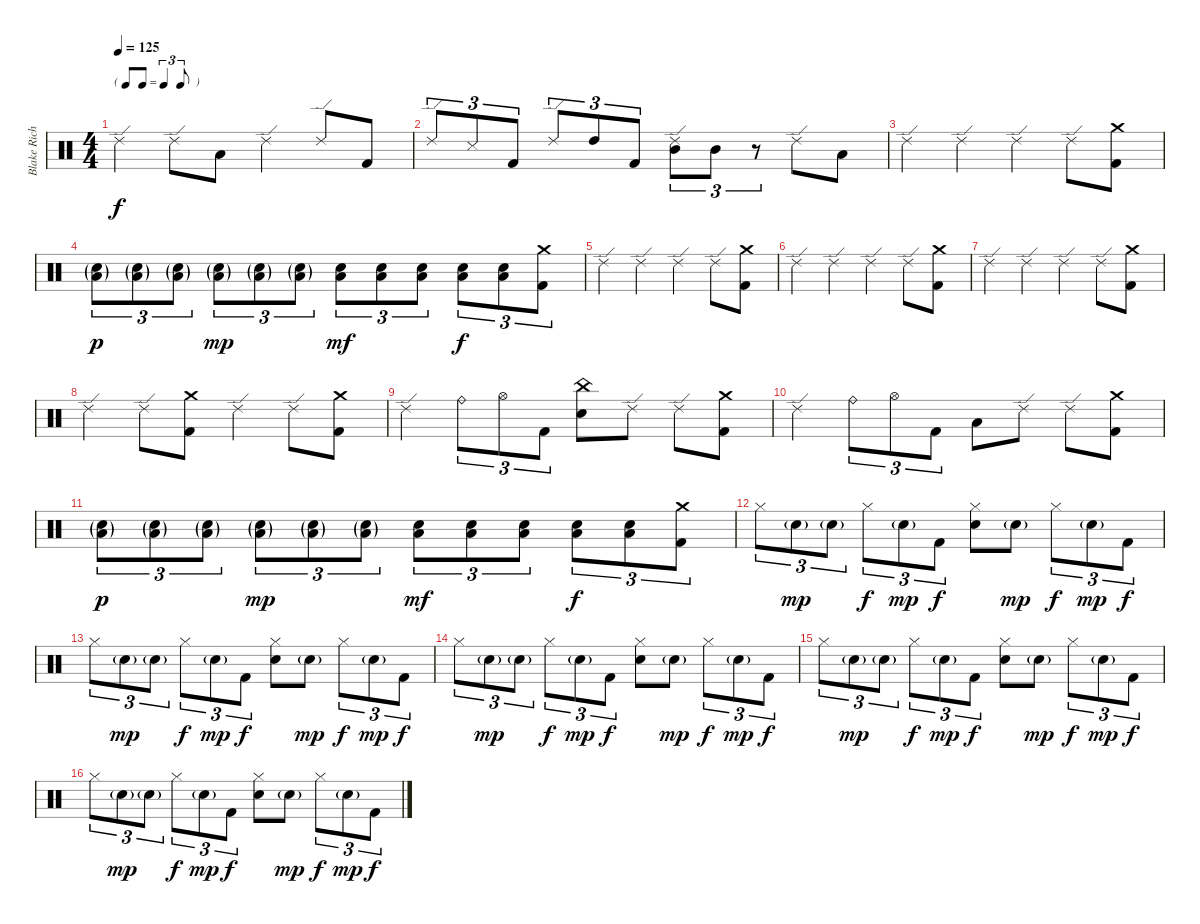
\track ("Blake Richardson - Drums" "Blake Rich") {instrument percussion}
\staff {score}
\articulation defaults
\ts (4 4)
\tf triplet8th
\tempo 125
\clef neutral
\ks c "Ride (edge) 2".4{dy f} "Ride (edge) 2".8 "Low Floor Tom (hit)".8 "Ride (edge) 2".4 "Ride (edge) 2".8 "Kick (hit) 2".8
|
"Ride (edge) 2".8{tu (3 2)} "Snare (side stick) 3".8{tu (3 2)} "Kick (hit) 2".8{tu (3 2)} "Ride (edge) 2".8{tu (3 2)} "High Tom (hit)".8{tu (3 2)} "Kick (hit) 2".8{tu (3 2)} ("Ride (edge) 2" "Mid Tom (hit)").8{tu (3 2)} "Mid Tom (hit)".8{tu (3 2)} r.8{tu (3 2)} "Ride (edge) 2".8 "Low Tom (hit)".8 |
"Ride (edge) 2".4 "Ride (edge) 2".4 "Ride (edge) 2".4 "Ride (edge) 2".8 ("Crash medium (hit)" "Kick (hit) 2").8 |
("Electric Snare (hit)"{g} "Low Tom (hit)"{g}).8{tu (3 2) dy p} ("Electric Snare (hit)"{g} "Low Tom (hit)"{g}).8{tu (3 2)} ("Electric Snare (hit)"{g} "Low Tom (hit)"{g}).8{tu (3 2)} ("Electric Snare (hit)"{g} "Low Tom (hit)"{g}).8{tu (3 2) dy mp} ("Electric Snare (hit)"{g} "Low Tom (hit)"{g}).8{tu (3 2)} ("Electric Snare (hit)"{g} "Low Tom (hit)"{g}).8{tu (3 2)} ("Electric Snare (hit)" "Low Tom (hit)").8{tu (3 2) dy mf} ("Electric Snare (hit)" "Low Tom (hit)").8{tu (3 2)} ("Electric Snare (hit)" "Low Tom (hit)").8{tu (3 2)} ("Electric Snare (hit)" "Low Tom (hit)").8{tu (3 2) dy f} ("Electric Snare (hit)" "Low Tom (hit)").8{tu (3 2)} ("Crash medium (hit)" "Kick (hit) 2").8{tu (3 2)} |
"Ride (edge) 2".4 "Ride (edge) 2".4 "Ride (edge) 2".4 "Ride (edge) 2".8 ("Crash medium (hit)" "Kick (hit) 2").8 |
"Ride (edge) 2".4 "Ride (edge) 2".4 "Ride (edge) 2".4 "Ride (edge) 2".8 ("Crash medium (hit)" "Kick (hit) 2").8 |
"Ride (edge) 2".4 "Ride (edge) 2".4 "Ride (edge) 2".4 "Ride (edge) 2".8 ("Crash medium (hit)" "Kick (hit) 2").8 |
"Ride (edge) 2".4 "Ride (edge) 2".8 ("Crash medium (hit)" "Kick (hit) 2").8 "Ride (edge) 2".4 "Ride (edge) 2".8 ("Crash medium (hit)" "Kick (hit) 2").8 |
"Ride (edge) 2".4 "Ride (bell)".8{tu (3 2)} "Hi-Hat (open)".8{tu (3 2)} "Kick (hit) 2".8{tu (3 2)} ("China (hit)" "Electric Snare (hit)").8 "Ride (edge) 2".8 "Ride (edge) 2".8 ("Crash medium (hit)" "Kick (hit) 2").8 |
"Ride (edge) 2".4 "Ride (bell)".8{tu (3 2)} "Hi-Hat (open)".8{tu (3 2)} "Kick (hit) 2".8{tu (3 2)} "Low Floor Tom (hit)".8 "Ride (edge) 2".8 "Ride (edge) 2".8 ("Crash medium (hit)" "Kick (hit) 2").8 |
("Electric Snare (hit)"{g} "Low Tom (hit)"{g}).8{tu (3 2) dy p} ("Electric Snare (hit)"{g} "Low Tom (hit)"{g}).8{tu (3 2)} ("Electric Snare (hit)"{g} "Low Tom (hit)"{g}).8{tu (3 2)} ("Electric Snare (hit)"{g} "Low Tom (hit)"{g}).8{tu (3 2) dy mp} ("Electric Snare (hit)"{g} "Low Tom (hit)"{g}).8{tu (3 2)} ("Electric Snare (hit)"{g} "Low Tom (hit)"{g}).8{tu (3 2)} ("Electric Snare (hit)" "Low Tom (hit)").8{tu (3 2) dy mf} ("Electric Snare (hit)" "Low Tom (hit)").8{tu (3 2)} ("Electric Snare (hit)" "Low Tom (hit)").8{tu (3 2)} ("Electric Snare (hit)" "Low Tom (hit)").8{tu (3 2) dy f} ("Electric Snare (hit)" "Low Tom (hit)").8{tu (3 2)} ("Crash medium (hit)" "Kick (hit) 2").8{tu (3 2)} |
"Hi-Hat (closed)".8{tu (3 2)} "Electric Snare (hit)"{g}.8{tu (3 2) dy mp} "Electric Snare (hit)"{g}.8{tu (3 2)} "Hi-Hat (closed)".8{tu (3 2) dy f} "Electric Snare (hit)"{g}.8{tu (3 2) dy mp} "Kick (hit) 2".8{tu (3 2) dy f} ("Hi-Hat (closed)" "Electric Snare (hit)").8 "Electric Snare (hit)"{g}.8{dy mp} "Hi-Hat (closed)".8{tu (3 2) dy f} "Electric Snare (hit)"{g}.8{tu (3 2) dy mp} "Kick (hit) 2".8{tu (3 2) dy f} |
"Hi-Hat (closed)".8{tu (3 2)} "Electric Snare (hit)"{g}.8{tu (3 2) dy mp} "Electric Snare (hit)"{g}.8{tu (3 2)} "Hi-Hat (closed)".8{tu (3 2) dy f} "Electric Snare (hit)"{g}.8{tu (3 2) dy mp} "Kick (hit) 2".8{tu (3 2) dy f} ("Hi-Hat (closed)" "Electric Snare (hit)").8 "Electric Snare (hit)"{g}.8{dy mp} "Hi-Hat (closed)".8{tu (3 2) dy f} "Electric Snare (hit)"{g}.8{tu (3 2) dy mp} "Kick (hit) 2".8{tu (3 2) dy f} |
"Hi-Hat (closed)".8{tu (3 2)} "Electric Snare (hit)"{g}.8{tu (3 2) dy mp} "Electric Snare (hit)"{g}.8{tu (3 2)} "Hi-Hat (closed)".8{tu (3 2) dy f} "Electric Snare (hit)"{g}.8{tu (3 2) dy mp} "Kick (hit) 2".8{tu (3 2) dy f} ("Hi-Hat (closed)" "Electric Snare (hit)").8 "Electric Snare (hit)"{g}.8{dy mp} "Hi-Hat (closed)".8{tu (3 2) dy f} "Electric Snare (hit)"{g}.8{tu (3 2) dy mp} "Kick (hit) 2".8{tu (3 2) dy f} |
"Hi-Hat (closed)".8{tu (3 2)} "Electric Snare (hit)"{g}.8{tu (3 2) dy mp} "Electric Snare (hit)"{g}.8{tu (3 2)} "Hi-Hat (closed)".8{tu (3 2) dy f} "Electric Snare (hit)"{g}.8{tu (3 2) dy mp} "Kick (hit) 2".8{tu (3 2) dy f} ("Hi-Hat (closed)" "Electric Snare (hit)").8 "Electric Snare (hit)"{g}.8{dy mp} "Hi-Hat (closed)".8{tu (3 2) dy f} "Electric Snare (hit)"{g}.8{tu (3 2) dy mp} "Kick (hit) 2".8{tu (3 2) dy f} |
"Hi-Hat (closed)".8{tu (3 2)} "Electric Snare (hit)"{g}.8{tu (3 2) dy mp} "Electric Snare (hit)"{g}.8{tu (3 2)} "Hi-Hat (closed)".8{tu (3 2) dy f} "Electric Snare (hit)"{g}.8{tu (3 2) dy mp} "Kick (hit) 2".8{tu (3 2) dy f} ("Hi-Hat (closed)" "Electric Snare (hit)").8 "Electric Snare (hit)"{g}.8{dy mp} "Hi-Hat (closed)".8{tu (3 2) dy f} "Electric Snare (hit)"{g}.8{tu (3 2) dy mp} "Kick (hit) 2".8{tu (3 2) dy f}
